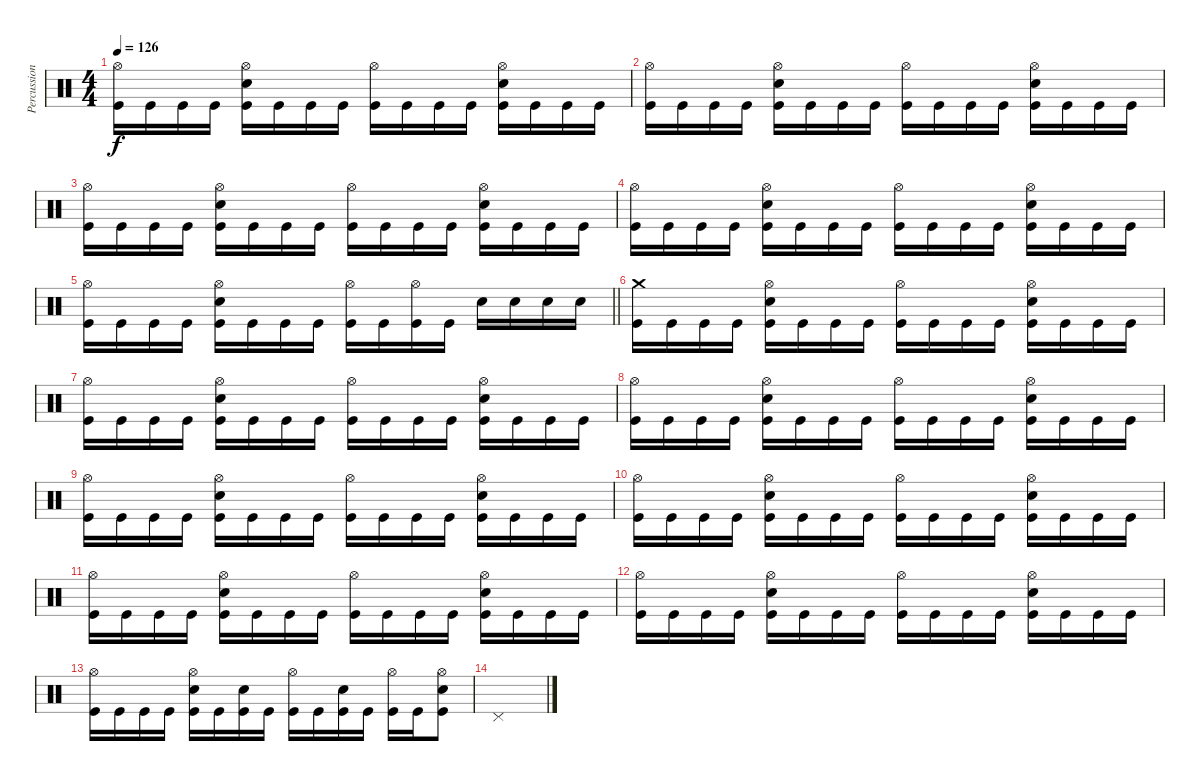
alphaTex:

\track ("Percussion" "Percussion") {instrument percussion}
\staff {score}
\articulation defaults
\ts (4 4)
\tempo 126
\clef neutral
\ks c
("Hi-Hat (open)" "Kick (hit)").16{dy f} "Kick (hit)".16 "Kick (hit)".16 "Kick (hit)".16 ("Hi-Hat (open)" "Electric Snare (hit)" "Kick (hit)").16 "Kick (hit)".16 "Kick (hit)".16 "Kick (hit)".16 ("Hi-Hat (open)" "Kick (hit)").16 "Kick (hit)".16 "Kick (hit)".16 "Kick (hit)".16 ("Hi-Hat (open)" "Electric Snare (hit)" "Kick (hit)").16 "Kick (hit)".16 "Kick (hit)".16 "Kick (hit)".16 |
("Hi-Hat (open)" "Kick (hit)").16 "Kick (hit)".16 "Kick (hit)".16 "Kick (hit)".16 ("Hi-Hat (open)" "Electric Snare (hit)" "Kick (hit)").16 "Kick (hit)".16 "Kick (hit)".16 "Kick (hit)".16 ("Hi-Hat (open)" "Kick (hit)").16 "Kick (hit)".16 "Kick (hit)".16 "Kick (hit)".16 ("Hi-Hat (open)" "Electric Snare (hit)" "Kick (hit)").16 "Kick (hit)".16 "Kick (hit)".16 "Kick (hit)".16 |
("Hi-Hat (open)" "Kick (hit)").16 "Kick (hit)".16 "Kick (hit)".16 "Kick (hit)".16 ("Hi-Hat (open)" "Electric Snare (hit)" "Kick (hit)").16 "Kick (hit)".16 "Kick (hit)".16 "Kick (hit)".16 ("Hi-Hat (open)" "Kick (hit)").16 "Kick (hit)".16 "Kick (hit)".16 "Kick (hit)".16 ("Hi-Hat (open)" "Electric Snare (hit)" "Kick (hit)").16 "Kick (hit)".16 "Kick (hit)".16 "Kick (hit)".16 |
("Hi-Hat (open)" "Kick (hit)").16 "Kick (hit)".16 "Kick (hit)".16 "Kick (hit)".16 ("Hi-Hat (open)" "Electric Snare (hit)" "Kick (hit)").16 "Kick (hit)".16 "Kick (hit)".16 "Kick (hit)".16 ("Hi-Hat (open)" "Kick (hit)").16 "Kick (hit)".16 "Kick (hit)".16 "Kick (hit)".16 ("Hi-Hat (open)" "Electric Snare (hit)" "Kick (hit)").16 "Kick (hit)".16 "Kick (hit)".16 "Kick (hit)".16 |
\barLineRight lightlight
("Hi-Hat (open)" "Kick (hit)").16 "Kick (hit)".16 "Kick (hit)".16 "Kick (hit)".16 ("Hi-Hat (open)" "Electric Snare (hit)" "Kick (hit)").16 "Kick (hit)".16 "Kick (hit)".16 "Kick (hit)".16 ("Hi-Hat (open)" "Kick (hit)").16 "Kick (hit)".16 ("Hi-Hat (open)" "Kick (hit)").16 "Kick (hit)".16 "Electric Snare (hit)".16 "Electric Snare (hit)".16 "Electric Snare (hit)".16 "Electric Snare (hit)".16 |
("Crash medium (hit)" "Kick (hit)").16 "Kick (hit)".16 "Kick (hit)".16 "Kick (hit)".16 ("Hi-Hat (open)" "Electric Snare (hit)" "Kick (hit)").16 "Kick (hit)".16 "Kick (hit)".16 "Kick (hit)".16 ("Hi-Hat (open)" "Kick (hit)").16 "Kick (hit)".16 "Kick (hit)".16 "Kick (hit)".16 ("Hi-Hat (open)" "Electric Snare (hit)" "Kick (hit)").16 "Kick (hit)".16 "Kick (hit)".16 "Kick (hit)".16 |
("Hi-Hat (open)" "Kick (hit)").16 "Kick (hit)".16 "Kick (hit)".16 "Kick (hit)".16 ("Hi-Hat (open)" "Electric Snare (hit)" "Kick (hit)").16 "Kick (hit)".16 "Kick (hit)".16 "Kick (hit)".16 ("Hi-Hat (open)" "Kick (hit)").16 "Kick (hit)".16 "Kick (hit)".16 "Kick (hit)".16 ("Hi-Hat (open)" "Electric Snare (hit)" "Kick (hit)").16 "Kick (hit)".16 "Kick (hit)".16 "Kick (hit)".16 |
("Hi-Hat (open)" "Kick (hit)").16 "Kick (hit)".16 "Kick (hit)".16 "Kick (hit)".16 ("Hi-Hat (open)" "Electric Snare (hit)" "Kick (hit)").16 "Kick (hit)".16 "Kick (hit)".16 "Kick (hit)".16 ("Hi-Hat (open)" "Kick (hit)").16 "Kick (hit)".16 "Kick (hit)".16 "Kick (hit)".16 ("Hi-Hat (open)" "Electric Snare (hit)" "Kick (hit)").16 "Kick (hit)".16 "Kick (hit)".16 "Kick (hit)".16 |
("Hi-Hat (open)" "Kick (hit)").16 "Kick (hit)".16 "Kick (hit)".16 "Kick (hit)".16 ("Hi-Hat (open)" "Electric Snare (hit)" "Kick (hit)").16 "Kick (hit)".16 "Kick (hit)".16 "Kick (hit)".16 ("Hi-Hat (open)" "Kick (hit)").16 "Kick (hit)".16 "Kick (hit)".16 "Kick (hit)".16 ("Hi-Hat (open)" "Electric Snare (hit)" "Kick (hit)").16 "Kick (hit)".16 "Kick (hit)".16 "Kick (hit)".16 |
("Hi-Hat (open)" "Kick (hit)").16 "Kick (hit)".16 "Kick (hit)".16 "Kick (hit)".16 ("Hi-Hat (open)" "Electric Snare (hit)" "Kick (hit)").16 "Kick (hit)".16 "Kick (hit)".16 "Kick (hit)".16 ("Hi-Hat (open)" "Kick (hit)").16 "Kick (hit)".16 "Kick (hit)".16 "Kick (hit)".16 ("Hi-Hat (open)" "Electric Snare (hit)" "Kick (hit)").16 "Kick (hit)".16 "Kick (hit)".16 "Kick (hit)".16 |
("Hi-Hat (open)" "Kick (hit)").16 "Kick (hit)".16 "Kick (hit)".16 "Kick (hit)".16 ("Hi-Hat (open)" "Electric Snare (hit)" "Kick (hit)").16 "Kick (hit)".16 "Kick (hit)".16 "Kick (hit)".16 ("Hi-Hat (open)" "Kick (hit)").16 "Kick (hit)".16 "Kick (hit)".16 "Kick (hit)".16 ("Hi-Hat (open)" "Electric Snare (hit)" "Kick (hit)").16 "Kick (hit)".16 "Kick (hit)".16 "Kick (hit)".16 |
("Hi-Hat (open)" "Kick (hit)").16 "Kick (hit)".16 "Kick (hit)".16 "Kick (hit)".16 ("Hi-Hat (open)" "Electric Snare (hit)" "Kick (hit)").16 "Kick (hit)".16 "Kick (hit)".16 "Kick (hit)".16 ("Hi-Hat (open)" "Kick (hit)").16 "Kick (hit)".16 "Kick (hit)".16 "Kick (hit)".16 ("Hi-Hat (open)" "Electric Snare (hit)" "Kick (hit)").16 "Kick (hit)".16 "Kick (hit)".16 "Kick (hit)".16 |
("Hi-Hat (open)" "Kick (hit)").16 "Kick (hit)".16 "Kick (hit)".16 "Kick (hit)".16 ("Hi-Hat (open)" "Electric Snare (hit)" "Kick (hit)").16 "Kick (hit)".16 ("Electric Snare (hit)" "Kick (hit)").16 "Kick (hit)".16 ("Hi-Hat (open)" "Kick (hit)").16 "Kick (hit)".16 ("Electric Snare (hit)" "Kick (hit)").16 "Kick (hit)".16 ("Hi-Hat (open)" "Kick (hit)").16 "Kick (hit)".16 ("Hi-Hat (open)" "Electric Snare (hit)" "Kick (hit)").8 |
"Pedal Hi-Hat (hit)".1
